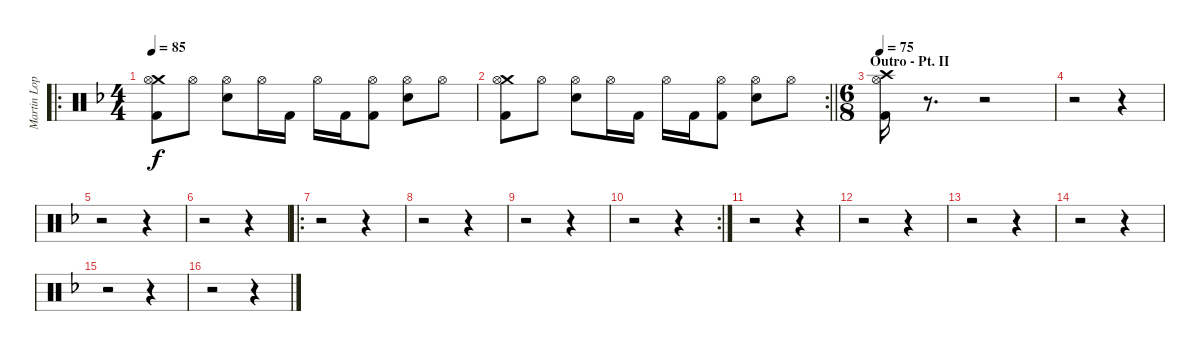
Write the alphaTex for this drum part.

\track ("Martin Lopez - Drums" "Martin Lop") {instrument percussion}
\staff {score}
\articulation defaults
\ro
\ts (4 4)
\tempo 85
\clef neutral
\ks f
("Crash medium (hit)" "Hi-Hat (open)" "Kick (hit) 2").8{dy f} "Hi-Hat (open)".8 ("Hi-Hat (open)" "Electric Snare (hit)").8 "Hi-Hat (open)".16 "Kick (hit) 2".16 "Hi-Hat (open)".16 "Kick (hit) 2".16 ("Hi-Hat (open)" "Kick (hit) 2").8 ("Hi-Hat (open)" "Electric Snare (hit)").8 "Hi-Hat (open)".8 |
\rc 2
\barLineRight lightlight
("Crash medium (hit)" "Hi-Hat (open)" "Kick (hit) 2").8 "Hi-Hat (open)".8 ("Hi-Hat (open)" "Electric Snare (hit)").8 "Hi-Hat (open)".16 "Kick (hit) 2".16 "Hi-Hat (open)".16 "Kick (hit) 2".16 ("Hi-Hat (open)" "Kick (hit) 2").8 ("Hi-Hat (open)" "Electric Snare (hit)").8 "Hi-Hat (open)".8 |
\ts (6 8)
\section ("" "Outro - Pt. II")
\tempo 75
("Crash high (hit)" "Hi-Hat (open)" "Kick (hit) 2").16 r.8{d volume 0} r.2 |
r.2 r.4 |
r.2 r.4 |
r.2 r.4 |
\ro
r.2 r.4 |
r.2 r.4 |
r.2 r.4 |
\rc 2
r.2 r.4 |
r.2 r.4 |
r.2 r.4 |
r.2 r.4 |
r.2 r.4 |
r.2 r.4 |
r.2 r.4
